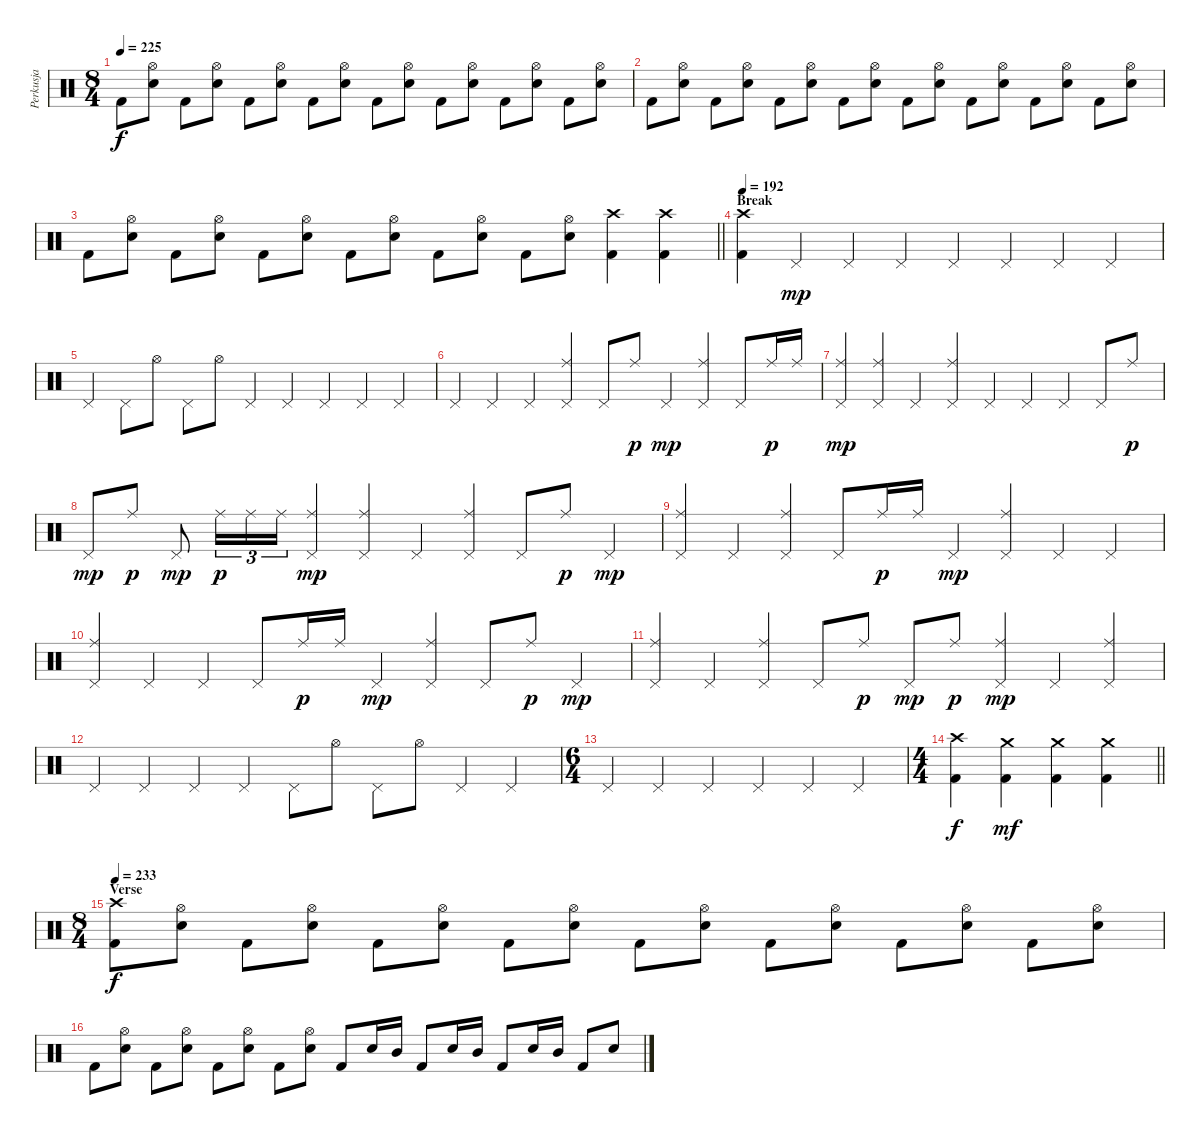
\track ("Perkusja" "Perkusja") {instrument percussion}
\staff {score}
\articulation defaults
\ts (8 4)
\tempo 225
\clef neutral
\ks c "Kick (hit) 2".8{dy f}
("Hi-Hat (open)" "Snare (hit) 2").8 "Kick (hit) 2".8 ("Hi-Hat (open)" "Snare (hit) 2").8 "Kick (hit) 2".8 ("Hi-Hat (open)" "Snare (hit) 2").8 "Kick (hit) 2".8 ("Hi-Hat (open)" "Snare (hit) 2").8 "Kick (hit) 2".8 ("Hi-Hat (open)" "Snare (hit) 2").8 "Kick (hit) 2".8 ("Hi-Hat (open)" "Snare (hit) 2").8 "Kick (hit) 2".8 ("Hi-Hat (open)" "Snare (hit) 2").8 "Kick (hit) 2".8 ("Hi-Hat (open)" "Snare (hit) 2").8 |
"Kick (hit) 2".8 ("Hi-Hat (open)" "Snare (hit) 2").8 "Kick (hit) 2".8 ("Hi-Hat (open)" "Snare (hit) 2").8 "Kick (hit) 2".8 ("Hi-Hat (open)" "Snare (hit) 2").8 "Kick (hit) 2".8 ("Hi-Hat (open)" "Snare (hit) 2").8 "Kick (hit) 2".8 ("Hi-Hat (open)" "Snare (hit) 2").8 "Kick (hit) 2".8 ("Hi-Hat (open)" "Snare (hit) 2").8 "Kick (hit) 2".8 ("Hi-Hat (open)" "Snare (hit) 2").8 "Kick (hit) 2".8 ("Hi-Hat (open)" "Snare (hit) 2").8 |
\barLineRight lightlight "Kick (hit) 2".8
("Hi-Hat (open)" "Snare (hit) 2").8 "Kick (hit) 2".8 ("Hi-Hat (open)" "Snare (hit) 2").8 "Kick (hit) 2".8 ("Hi-Hat (open)" "Snare (hit) 2").8 "Kick (hit) 2".8 ("Hi-Hat (open)" "Snare (hit) 2").8 "Kick (hit) 2".8 ("Hi-Hat (open)" "Snare (hit) 2").8 "Kick (hit) 2".8 ("Hi-Hat (open)" "Snare (hit) 2").8 ("Crash high (hit)" "Kick (hit) 2").4 ("Crash high (hit)" "Kick (hit) 2").4 |
\section ("" "Break")
\tempo 192
("Crash high (hit)" "Kick (hit) 2").4 "Pedal Hi-Hat (hit)".4{dy mp} "Pedal Hi-Hat (hit)".4 "Pedal Hi-Hat (hit)".4 "Pedal Hi-Hat (hit)".4 "Pedal Hi-Hat (hit)".4 "Pedal Hi-Hat (hit)".4 "Pedal Hi-Hat (hit)".4 |
"Pedal Hi-Hat (hit)".4 "Pedal Hi-Hat (hit)".8 "Hi-Hat (open)".8 "Pedal Hi-Hat (hit)".8 "Hi-Hat (open)".8 "Pedal Hi-Hat (hit)".4 "Pedal Hi-Hat (hit)".4 "Pedal Hi-Hat (hit)".4 "Pedal Hi-Hat (hit)".4 "Pedal Hi-Hat (hit)".4 |
"Pedal Hi-Hat (hit)".4 "Pedal Hi-Hat (hit)".4 "Pedal Hi-Hat (hit)".4 ("Ride (middle)" "Pedal Hi-Hat (hit)").4 "Pedal Hi-Hat (hit)".8 "Ride (middle)".8{dy p} "Pedal Hi-Hat (hit)".4{dy mp} ("Ride (middle)" "Pedal Hi-Hat (hit)").4 "Pedal Hi-Hat (hit)".8 "Ride (middle)".16{dy p} "Ride (middle)".16 |
("Ride (middle)" "Pedal Hi-Hat (hit)").4{dy mp} ("Ride (middle)" "Pedal Hi-Hat (hit)").4 "Pedal Hi-Hat (hit)".4 ("Ride (middle)" "Pedal Hi-Hat (hit)").4 "Pedal Hi-Hat (hit)".4 "Pedal Hi-Hat (hit)".4 "Pedal Hi-Hat (hit)".4 "Pedal Hi-Hat (hit)".8 "Ride (middle)".8{dy p} |
"Pedal Hi-Hat (hit)".8{dy mp} "Ride (middle)".8{dy p} "Pedal Hi-Hat (hit)".8{dy mp} "Ride (middle)".16{tu (3 2) dy p} "Ride (middle)".16{tu (3 2)} "Ride (middle)".16{tu (3 2)} ("Ride (middle)" "Pedal Hi-Hat (hit)").4{dy mp} ("Ride (middle)" "Pedal Hi-Hat (hit)").4 "Pedal Hi-Hat (hit)".4 ("Ride (middle)" "Pedal Hi-Hat (hit)").4 "Pedal Hi-Hat (hit)".8 "Ride (middle)".8{dy p} "Pedal Hi-Hat (hit)".4{dy mp} |
("Ride (middle)" "Pedal Hi-Hat (hit)").4 "Pedal Hi-Hat (hit)".4 ("Ride (middle)" "Pedal Hi-Hat (hit)").4 "Pedal Hi-Hat (hit)".8 "Ride (middle)".16{dy p} "Ride (middle)".16 "Pedal Hi-Hat (hit)".4{dy mp} ("Ride (middle)" "Pedal Hi-Hat (hit)").4 "Pedal Hi-Hat (hit)".4 "Pedal Hi-Hat (hit)".4 |
("Ride (middle)" "Pedal Hi-Hat (hit)").4 "Pedal Hi-Hat (hit)".4 "Pedal Hi-Hat (hit)".4 "Pedal Hi-Hat (hit)".8 "Ride (middle)".16{dy p} "Ride (middle)".16 "Pedal Hi-Hat (hit)".4{dy mp} ("Ride (middle)" "Pedal Hi-Hat (hit)").4 "Pedal Hi-Hat (hit)".8 "Ride (middle)".8{dy p} "Pedal Hi-Hat (hit)".4{dy mp} |
("Ride (middle)" "Pedal Hi-Hat (hit)").4 "Pedal Hi-Hat (hit)".4 ("Ride (middle)" "Pedal Hi-Hat (hit)").4 "Pedal Hi-Hat (hit)".8 "Ride (middle)".8{dy p} "Pedal Hi-Hat (hit)".8{dy mp} "Ride (middle)".8{dy p} ("Ride (middle)" "Pedal Hi-Hat (hit)").4{dy mp} "Pedal Hi-Hat (hit)".4 ("Ride (middle)" "Pedal Hi-Hat (hit)").4 |
"Pedal Hi-Hat (hit)".4 "Pedal Hi-Hat (hit)".4 "Pedal Hi-Hat (hit)".4 "Pedal Hi-Hat (hit)".4 "Pedal Hi-Hat (hit)".8 "Hi-Hat (open)".8 "Pedal Hi-Hat (hit)".8 "Hi-Hat (open)".8 "Pedal Hi-Hat (hit)".4 "Pedal Hi-Hat (hit)".4 |
\ts (6 4)
"Pedal Hi-Hat (hit)".4 "Pedal Hi-Hat (hit)".4 "Pedal Hi-Hat (hit)".4 "Pedal Hi-Hat (hit)".4 "Pedal Hi-Hat (hit)".4 "Pedal Hi-Hat (hit)".4 |
\ts (4 4)
\barLineRight lightlight
("Crash high (hit)" "Kick (hit) 2").4{dy f} ("Crash medium (hit)" "Kick (hit) 2").4{dy mf} ("Crash medium (hit)" "Kick (hit) 2").4 ("Crash medium (hit)" "Kick (hit) 2").4 |
\ts (8 4)
\section ("" "Verse")
\tempo 233
("Crash high (hit)" "Kick (hit) 2").8{dy f} ("Hi-Hat (open)" "Snare (hit) 2").8 "Kick (hit) 2".8 ("Hi-Hat (open)" "Snare (hit) 2").8 "Kick (hit) 2".8 ("Hi-Hat (open)" "Snare (hit) 2").8 "Kick (hit) 2".8 ("Hi-Hat (open)" "Snare (hit) 2").8 "Kick (hit) 2".8 ("Hi-Hat (open)" "Snare (hit) 2").8 "Kick (hit) 2".8 ("Hi-Hat (open)" "Snare (hit) 2").8 "Kick (hit) 2".8 ("Hi-Hat (open)" "Snare (hit) 2").8 "Kick (hit) 2".8 ("Hi-Hat (open)" "Snare (hit) 2").8 |
"Kick (hit) 2".8 ("Hi-Hat (open)" "Snare (hit) 2").8 "Kick (hit) 2".8 ("Hi-Hat (open)" "Snare (hit) 2").8 "Kick (hit) 2".8 ("Hi-Hat (open)" "Snare (hit) 2").8 "Kick (hit) 2".8 ("Hi-Hat (open)" "Snare (hit) 2").8 "Kick (hit) 2".8 "Snare (hit) 2".16 "Mid Tom (hit)".16 "Kick (hit) 2".8 "Snare (hit) 2".16 "Mid Tom (hit)".16 "Kick (hit) 2".8 "Snare (hit) 2".16 "Mid Tom (hit)".16 "Kick (hit) 2".8 "Snare (hit) 2".8
